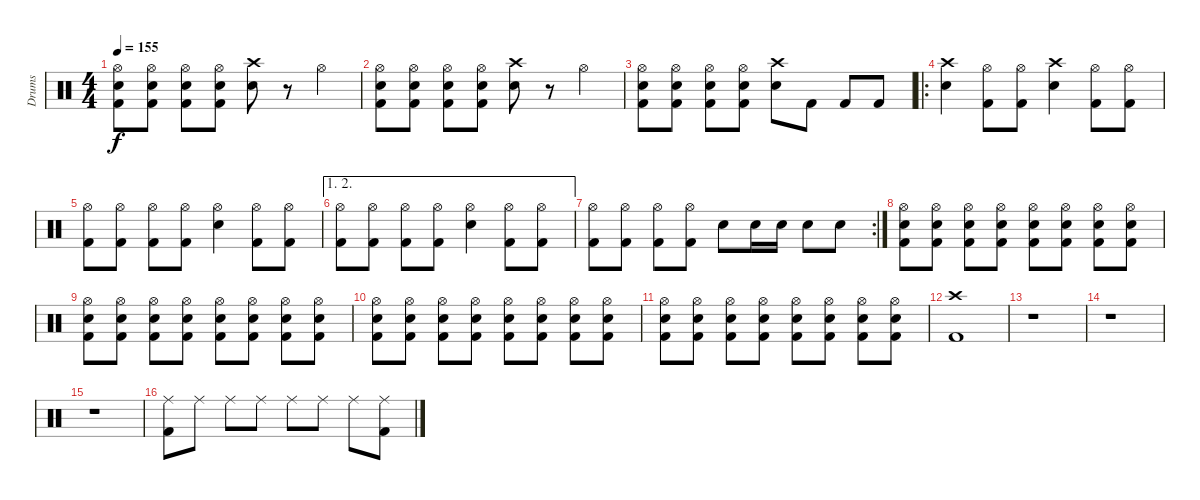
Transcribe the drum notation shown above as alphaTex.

\track ("Drums" "Drums") {instrument percussion}
\staff {score}
\articulation defaults
\ts (4 4)
\tempo 155
\clef neutral
\ks c
("Hi-Hat (open)" "Snare (hit) 2" "Kick (hit) 2").8{dy f} ("Hi-Hat (open)" "Snare (hit) 2" "Kick (hit) 2").8 ("Hi-Hat (open)" "Snare (hit) 2" "Kick (hit) 2").8 ("Hi-Hat (open)" "Snare (hit) 2" "Kick (hit) 2").8 ("Crash high (hit)" "Snare (hit) 2").8 r.8 "Hi-Hat (open)".4 |
("Hi-Hat (open)" "Snare (hit) 2" "Kick (hit) 2").8 ("Hi-Hat (open)" "Snare (hit) 2" "Kick (hit) 2").8 ("Hi-Hat (open)" "Snare (hit) 2" "Kick (hit) 2").8 ("Hi-Hat (open)" "Snare (hit) 2" "Kick (hit) 2").8 ("Crash high (hit)" "Snare (hit) 2").8 r.8 "Hi-Hat (open)".4 |
("Hi-Hat (open)" "Snare (hit) 2" "Kick (hit) 2").8 ("Hi-Hat (open)" "Snare (hit) 2" "Kick (hit) 2").8 ("Hi-Hat (open)" "Snare (hit) 2" "Kick (hit) 2").8 ("Hi-Hat (open)" "Snare (hit) 2" "Kick (hit) 2").8 ("Crash high (hit)" "Snare (hit) 2").8 "Kick (hit) 2".8 "Kick (hit) 2".8 "Kick (hit) 2".8 |
\ro
("Crash high (hit)" "Snare (hit) 2").4 ("Hi-Hat (open)" "Kick (hit) 2").8 ("Hi-Hat (open)" "Kick (hit) 2").8 ("Crash high (hit)" "Snare (hit) 2").4 ("Hi-Hat (open)" "Kick (hit) 2").8 ("Hi-Hat (open)" "Kick (hit) 2").8 |
("Hi-Hat (open)" "Kick (hit) 2").8 ("Hi-Hat (open)" "Kick (hit) 2").8 ("Hi-Hat (open)" "Kick (hit) 2").8 ("Hi-Hat (open)" "Kick (hit) 2").8 ("Hi-Hat (open)" "Snare (hit) 2").4 ("Hi-Hat (open)" "Kick (hit) 2").8 ("Hi-Hat (open)" "Kick (hit) 2").8 |
\ae (1 2)
("Hi-Hat (open)" "Kick (hit) 2").8 ("Hi-Hat (open)" "Kick (hit) 2").8 ("Hi-Hat (open)" "Kick (hit) 2").8 ("Hi-Hat (open)" "Kick (hit) 2").8 ("Hi-Hat (open)" "Snare (hit) 2").4 ("Hi-Hat (open)" "Kick (hit) 2").8 ("Hi-Hat (open)" "Kick (hit) 2").8 |
\rc 2
("Hi-Hat (open)" "Kick (hit) 2").8 ("Hi-Hat (open)" "Kick (hit) 2").8 ("Hi-Hat (open)" "Kick (hit) 2").8 ("Hi-Hat (open)" "Kick (hit) 2").8 "Snare (hit) 2".8 "Snare (hit) 2".16 "Snare (hit) 2".16 "Snare (hit) 2".8 "Snare (hit) 2".8 |
("Hi-Hat (open)" "Snare (hit) 2" "Kick (hit) 2").8 ("Hi-Hat (open)" "Snare (hit) 2" "Kick (hit) 2").8 ("Hi-Hat (open)" "Snare (hit) 2" "Kick (hit) 2").8 ("Hi-Hat (open)" "Snare (hit) 2" "Kick (hit) 2").8 ("Hi-Hat (open)" "Snare (hit) 2" "Kick (hit) 2").8 ("Hi-Hat (open)" "Snare (hit) 2" "Kick (hit) 2").8 ("Hi-Hat (open)" "Snare (hit) 2" "Kick (hit) 2").8 ("Hi-Hat (open)" "Snare (hit) 2" "Kick (hit) 2").8 |
("Hi-Hat (open)" "Snare (hit) 2" "Kick (hit) 2").8 ("Hi-Hat (open)" "Snare (hit) 2" "Kick (hit) 2").8 ("Hi-Hat (open)" "Snare (hit) 2" "Kick (hit) 2").8 ("Hi-Hat (open)" "Snare (hit) 2" "Kick (hit) 2").8 ("Hi-Hat (open)" "Snare (hit) 2" "Kick (hit) 2").8 ("Hi-Hat (open)" "Snare (hit) 2" "Kick (hit) 2").8 ("Hi-Hat (open)" "Snare (hit) 2" "Kick (hit) 2").8 ("Hi-Hat (open)" "Snare (hit) 2" "Kick (hit) 2").8 |
("Hi-Hat (open)" "Snare (hit) 2" "Kick (hit) 2").8 ("Hi-Hat (open)" "Snare (hit) 2" "Kick (hit) 2").8 ("Hi-Hat (open)" "Snare (hit) 2" "Kick (hit) 2").8 ("Hi-Hat (open)" "Snare (hit) 2" "Kick (hit) 2").8 ("Hi-Hat (open)" "Snare (hit) 2" "Kick (hit) 2").8 ("Hi-Hat (open)" "Snare (hit) 2" "Kick (hit) 2").8 ("Hi-Hat (open)" "Snare (hit) 2" "Kick (hit) 2").8 ("Hi-Hat (open)" "Snare (hit) 2" "Kick (hit) 2").8 |
("Hi-Hat (open)" "Snare (hit) 2" "Kick (hit) 2").8 ("Hi-Hat (open)" "Snare (hit) 2" "Kick (hit) 2").8 ("Hi-Hat (open)" "Snare (hit) 2" "Kick (hit) 2").8 ("Hi-Hat (open)" "Snare (hit) 2" "Kick (hit) 2").8 ("Hi-Hat (open)" "Snare (hit) 2" "Kick (hit) 2").8 ("Hi-Hat (open)" "Snare (hit) 2" "Kick (hit) 2").8 ("Hi-Hat (open)" "Snare (hit) 2" "Kick (hit) 2").8 ("Hi-Hat (open)" "Snare (hit) 2" "Kick (hit) 2").8 |
("Crash high (hit)" "Kick (hit) 2").1 |
r.1 |
r.1 |
r.1 |
("Ride (middle)" "Kick (hit) 2").8 "Ride (middle)".8 "Ride (middle)".8 "Ride (middle)".8 "Ride (middle)".8 "Ride (middle)".8 "Ride (middle)".8 ("Ride (middle)" "Kick (hit) 2").8
